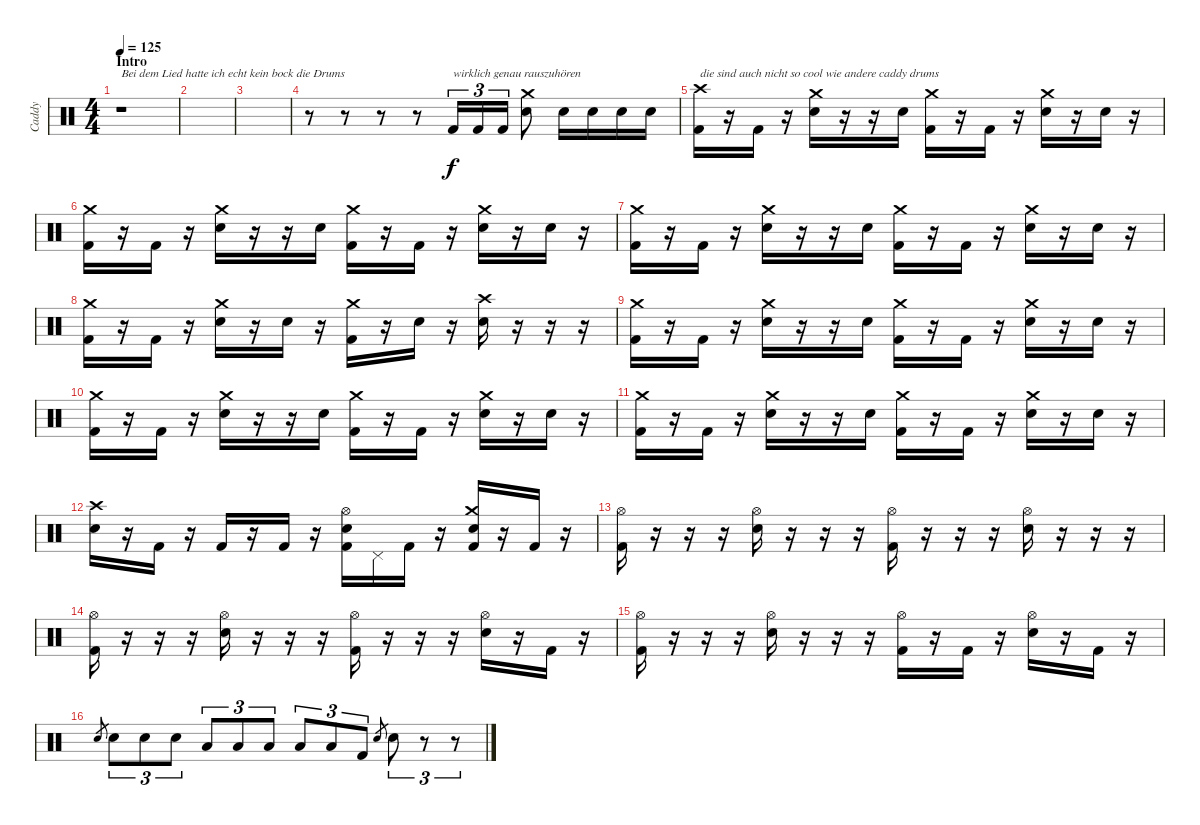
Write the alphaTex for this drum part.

\track ("Caddy" "Caddy") {instrument percussion}
\staff {score}
\articulation defaults
\ts (4 4)
\section ("" "Intro")
\tempo 125
\clef neutral
\ks c
r.1{txt "Bei dem Lied hatte ich echt kein bock die Drums" dy f} |
|
|
r.8 r.8 r.8 r.8 "Kick (hit) 2".16{tu (3 2) txt "wirklich genau rauszuhören"} "Kick (hit) 2".16{tu (3 2)} "Kick (hit) 2".16{tu (3 2)} ("Crash medium (hit)" "Electric Snare (hit)").8 "Electric Snare (hit)".16 "Electric Snare (hit)".16 "Electric Snare (hit)".16 "Electric Snare (hit)".16 |
("Crash high (hit)" "Kick (hit) 2").16{txt "die sind auch nicht so cool wie andere caddy drums"} r.16 "Kick (hit) 2".16 r.16 ("Crash medium (hit)" "Electric Snare (hit)").16 r.16 r.16 "Electric Snare (hit)".16 ("Crash medium (hit)" "Kick (hit) 2").16 r.16 "Kick (hit) 2".16 r.16 ("Crash medium (hit)" "Electric Snare (hit)").16 r.16 "Electric Snare (hit)".16 r.16 |
("Crash medium (hit)" "Kick (hit) 2").16 r.16 "Kick (hit) 2".16 r.16 ("Crash medium (hit)" "Electric Snare (hit)").16 r.16 r.16 "Electric Snare (hit)".16 ("Crash medium (hit)" "Kick (hit) 2").16 r.16 "Kick (hit) 2".16 r.16 ("Crash medium (hit)" "Electric Snare (hit)").16 r.16 "Electric Snare (hit)".16 r.16 |
("Crash medium (hit)" "Kick (hit) 2").16 r.16 "Kick (hit) 2".16 r.16 ("Crash medium (hit)" "Electric Snare (hit)").16 r.16 r.16 "Electric Snare (hit)".16 ("Crash medium (hit)" "Kick (hit) 2").16 r.16 "Kick (hit) 2".16 r.16 ("Crash medium (hit)" "Electric Snare (hit)").16 r.16 "Electric Snare (hit)".16 r.16 |
("Crash medium (hit)" "Kick (hit) 2").16 r.16 "Kick (hit) 2".16 r.16 ("Crash medium (hit)" "Electric Snare (hit)").16 r.16 "Electric Snare (hit)".16 r.16 ("Crash medium (hit)" "Kick (hit) 2").16 r.16 "Electric Snare (hit)".16 r.16 ("Crash high (hit)" "Electric Snare (hit)").16 r.16 r.16 r.16 |
("Crash medium (hit)" "Kick (hit) 2").16 r.16 "Kick (hit) 2".16 r.16 ("Crash medium (hit)" "Electric Snare (hit)").16 r.16 r.16 "Electric Snare (hit)".16 ("Crash medium (hit)" "Kick (hit) 2").16 r.16 "Kick (hit) 2".16 r.16 ("Crash medium (hit)" "Electric Snare (hit)").16 r.16 "Electric Snare (hit)".16 r.16 |
("Crash medium (hit)" "Kick (hit) 2").16 r.16 "Kick (hit) 2".16 r.16 ("Crash medium (hit)" "Electric Snare (hit)").16 r.16 r.16 "Electric Snare (hit)".16 ("Crash medium (hit)" "Kick (hit) 2").16 r.16 "Kick (hit) 2".16 r.16 ("Crash medium (hit)" "Electric Snare (hit)").16 r.16 "Electric Snare (hit)".16 r.16 |
("Crash medium (hit)" "Kick (hit) 2").16 r.16 "Kick (hit) 2".16 r.16 ("Crash medium (hit)" "Electric Snare (hit)").16 r.16 r.16 "Electric Snare (hit)".16 ("Crash medium (hit)" "Kick (hit) 2").16 r.16 "Kick (hit) 2".16 r.16 ("Crash medium (hit)" "Electric Snare (hit)").16 r.16 "Electric Snare (hit)".16 r.16 |
("Crash high (hit)" "Electric Snare (hit)").16 r.16 "Kick (hit) 2".16 r.16 "Kick (hit) 2".16 r.16 "Kick (hit) 2".16 r.16 ("Hi-Hat (open)" "Electric Snare (hit)" "Kick (hit) 2").16 "Pedal Hi-Hat (hit)".16 "Kick (hit) 2".16 r.16 ("Crash medium (hit)" "Electric Snare (hit)" "Kick (hit) 2").16 r.16 "Kick (hit) 2".16 r.16 |
("Hi-Hat (open)" "Kick (hit) 2").16 r.16 r.16 r.16 ("Hi-Hat (open)" "Electric Snare (hit)").16 r.16 r.16 r.16 ("Hi-Hat (open)" "Kick (hit) 2").16 r.16 r.16 r.16 ("Hi-Hat (open)" "Electric Snare (hit)").16 r.16 r.16 r.16 |
("Hi-Hat (open)" "Kick (hit) 2").16 r.16 r.16 r.16 ("Hi-Hat (open)" "Electric Snare (hit)").16 r.16 r.16 r.16 ("Hi-Hat (open)" "Kick (hit) 2").16 r.16 r.16 r.16 ("Hi-Hat (open)" "Electric Snare (hit)").16 r.16 "Kick (hit) 2".16 r.16 |
("Hi-Hat (open)" "Kick (hit) 2").16 r.16 r.16 r.16 ("Hi-Hat (open)" "Electric Snare (hit)").16 r.16 r.16 r.16 ("Hi-Hat (open)" "Kick (hit) 2").16 r.16 "Kick (hit) 2".16 r.16 ("Hi-Hat (open)" "Electric Snare (hit)").16 r.16 "Kick (hit) 2".16 r.16 |
"Electric Snare (hit)".8{gr} "Electric Snare (hit)".8{tu (3 2)} "Electric Snare (hit)".8{tu (3 2)} "Electric Snare (hit)".8{tu (3 2)} "Low Tom (hit)".8{tu (3 2)} "Low Tom (hit)".8{tu (3 2)} "Low Tom (hit)".8{tu (3 2)} "Low Floor Tom (hit)".8{tu (3 2)} "Low Floor Tom (hit)".8{tu (3 2)} "Kick (hit) 2".8{tu (3 2)} "Electric Snare (hit)".8{gr} "Electric Snare (hit)".8{tu (3 2)} r.8{tu (3 2)} r.8{tu (3 2)}
